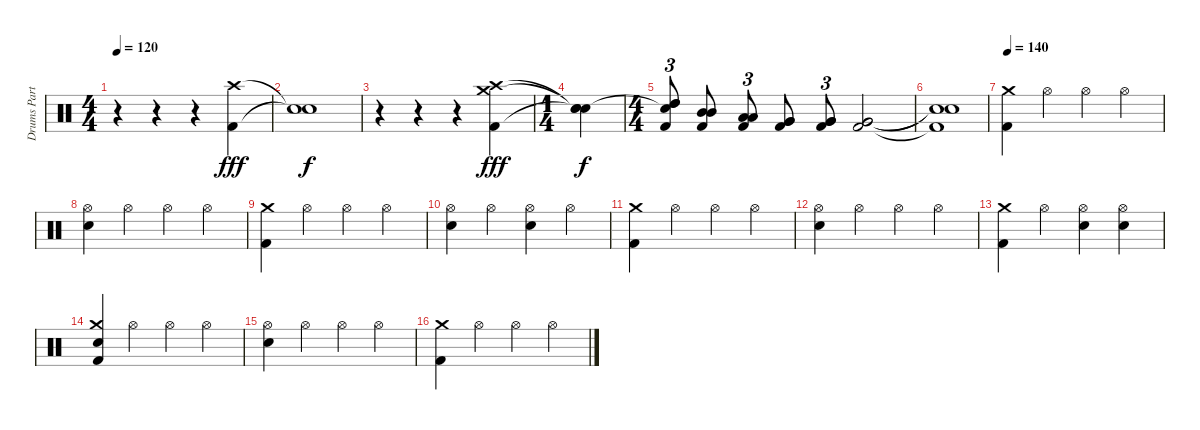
\track ("Drums Part" "Drums Part") {instrument percussion}
\staff {score}
\articulation defaults
\ts (4 4)
\tempo 120
\clef neutral
\ks c
r.4{dy f} r.4 r.4 ("Crash high (hit)" "Kick (hit) 2").4{dy fff} |
("Snare (hit)"{t} "Snare (hit)"{t}).1{dy f} |
r.4 r.4 r.4 ("Crash high (hit)" "Crash medium (hit)" "Kick (hit) 2").4{dy fff} |
\ts (1 4)
("Snare (hit)"{t} "Snare (hit)"{t} "Snare (hit)"{t}).4{dy f} |
\ts (4 4)
("Snare (hit)"{t} "High Tom (hit)" "High Tom (hit)" "Kick (hit) 2").8{tu (3 2)} ("Mid Tom (hit)" "Mid Tom (hit)" "Kick (hit) 2").8 ("Low Tom (hit)" "Low Tom (hit)" "Kick (hit) 2").8{tu (3 2)} ("Very Low Tom (hit)" "Very Low Tom (hit)" "Kick (hit) 2").8 ("Very Low Tom (hit)" "Very Low Tom (hit)" "Kick (hit) 2").8{tu (3 2)} ("Very Low Tom (hit)" "Very Low Tom (hit)" "Kick (hit) 2").2 |
("Snare (hit)"{t} "Snare (hit)"{t} "Kick (hit) 2"{t}).1 |
\tempo 140
("Crash medium (hit)" "Kick (hit) 2").4 "Hi-Hat (open)".4 "Hi-Hat (open)".4 "Hi-Hat (open)".4 |
("Hi-Hat (open)" "Electric Snare (hit)").4 "Hi-Hat (open)".4 "Hi-Hat (open)".4 "Hi-Hat (open)".4 |
("Crash medium (hit)" "Kick (hit) 2").4 "Hi-Hat (open)".4 "Hi-Hat (open)".4 "Hi-Hat (open)".4 |
("Hi-Hat (open)" "Electric Snare (hit)").4 "Hi-Hat (open)".4 ("Hi-Hat (open)" "Electric Snare (hit)").4 "Hi-Hat (open)".4 |
("Crash medium (hit)" "Kick (hit) 2").4 "Hi-Hat (open)".4 "Hi-Hat (open)".4 "Hi-Hat (open)".4 |
("Hi-Hat (open)" "Electric Snare (hit)").4 "Hi-Hat (open)".4 "Hi-Hat (open)".4 "Hi-Hat (open)".4 |
("Crash medium (hit)" "Kick (hit) 2").4 "Hi-Hat (open)".4 ("Hi-Hat (open)" "Electric Snare (hit)").4 ("Hi-Hat (open)" "Electric Snare (hit)").4 |
("Crash medium (hit)" "Electric Snare (hit)" "Kick (hit) 2").4 "Hi-Hat (open)".4 "Hi-Hat (open)".4 "Hi-Hat (open)".4 |
("Hi-Hat (open)" "Electric Snare (hit)").4 "Hi-Hat (open)".4 "Hi-Hat (open)".4 "Hi-Hat (open)".4 |
("Crash medium (hit)" "Kick (hit) 2").4 "Hi-Hat (open)".4 "Hi-Hat (open)".4 "Hi-Hat (open)".4
